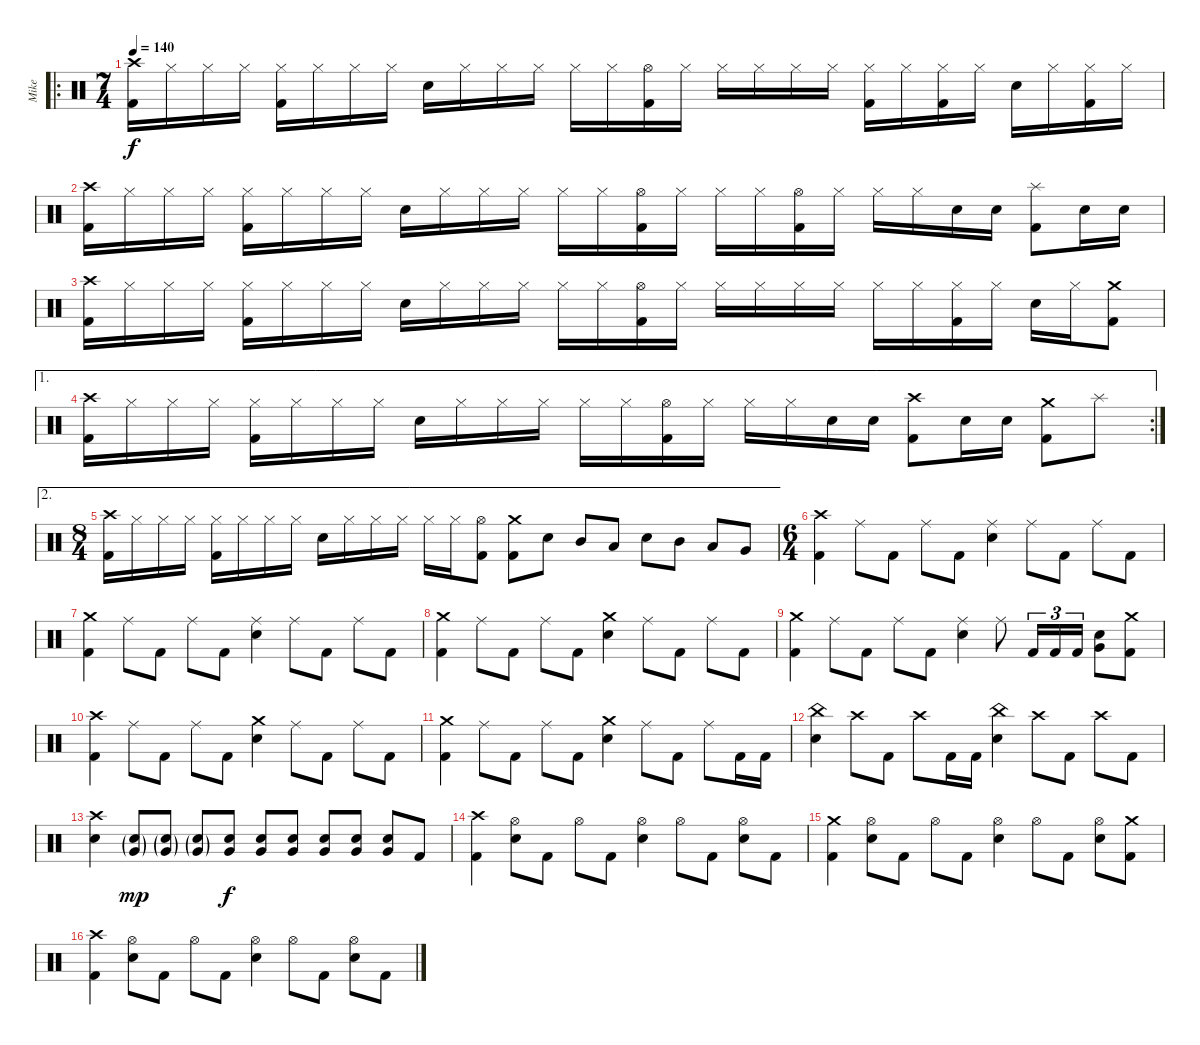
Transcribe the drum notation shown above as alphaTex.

\track ("Mike" "Mike") {instrument percussion}
\staff {score}
\articulation defaults
\ro
\ts (7 4)
\tempo 140
\clef neutral
\ks c
("Kick (hit) 2" "Crash high (hit)").16{dy f} "Hi-Hat (closed)".16 "Hi-Hat (closed)".16 "Hi-Hat (closed)".16 ("Kick (hit) 2" "Hi-Hat (closed)").16 "Hi-Hat (closed)".16 "Hi-Hat (closed)".16 "Hi-Hat (closed)".16 "Electric Snare (hit)".16 "Hi-Hat (closed)".16 "Hi-Hat (closed)".16 "Hi-Hat (closed)".16 "Hi-Hat (closed)".16 "Hi-Hat (closed)".16 ("Kick (hit) 2" "Hi-Hat (open)").16 "Hi-Hat (closed)".16 "Hi-Hat (closed)".16 "Hi-Hat (closed)".16 "Hi-Hat (closed)".16 "Hi-Hat (closed)".16 ("Kick (hit) 2" "Hi-Hat (closed)").16 "Hi-Hat (closed)".16 ("Kick (hit) 2" "Hi-Hat (closed)").16 "Hi-Hat (closed)".16 "Electric Snare (hit)".16 "Hi-Hat (closed)".16 ("Kick (hit) 2" "Hi-Hat (closed)").16 "Hi-Hat (closed)".16 |
("Kick (hit) 2" "Crash high (hit)").16 "Hi-Hat (closed)".16 "Hi-Hat (closed)".16 "Hi-Hat (closed)".16 ("Kick (hit) 2" "Hi-Hat (closed)").16 "Hi-Hat (closed)".16 "Hi-Hat (closed)".16 "Hi-Hat (closed)".16 "Electric Snare (hit)".16 "Hi-Hat (closed)".16 "Hi-Hat (closed)".16 "Hi-Hat (closed)".16 "Hi-Hat (closed)".16 "Hi-Hat (closed)".16 ("Kick (hit) 2" "Hi-Hat (open)").16 "Hi-Hat (closed)".16 "Hi-Hat (closed)".16 "Hi-Hat (closed)".16 ("Kick (hit) 2" "Hi-Hat (open)").16 "Hi-Hat (closed)".16 "Hi-Hat (closed)".16 "Hi-Hat (closed)".16 "Electric Snare (hit)".16 "Electric Snare (hit)".16 ("Kick (hit) 2" "Splash (hit)").8 "Electric Snare (hit)".16 "Electric Snare (hit)".16 |
("Kick (hit) 2" "Crash high (hit)").16 "Hi-Hat (closed)".16 "Hi-Hat (closed)".16 "Hi-Hat (closed)".16 ("Kick (hit) 2" "Hi-Hat (closed)").16 "Hi-Hat (closed)".16 "Hi-Hat (closed)".16 "Hi-Hat (closed)".16 "Electric Snare (hit)".16 "Hi-Hat (closed)".16 "Hi-Hat (closed)".16 "Hi-Hat (closed)".16 "Hi-Hat (closed)".16 "Hi-Hat (closed)".16 ("Kick (hit) 2" "Hi-Hat (open)").16 "Hi-Hat (closed)".16 "Hi-Hat (closed)".16 "Hi-Hat (closed)".16 "Hi-Hat (closed)".16 "Hi-Hat (closed)".16 "Hi-Hat (closed)".16 "Hi-Hat (closed)".16 ("Kick (hit) 2" "Hi-Hat (closed)").16 "Hi-Hat (closed)".16 "Electric Snare (hit)".16 "Hi-Hat (closed)".16 ("Kick (hit) 2" "Crash medium (hit)").8 |
\ae 1
\rc 2
("Kick (hit) 2" "Crash high (hit)").16 "Hi-Hat (closed)".16 "Hi-Hat (closed)".16 "Hi-Hat (closed)".16 ("Kick (hit) 2" "Hi-Hat (closed)").16 "Hi-Hat (closed)".16 "Hi-Hat (closed)".16 "Hi-Hat (closed)".16 "Electric Snare (hit)".16 "Hi-Hat (closed)".16 "Hi-Hat (closed)".16 "Hi-Hat (closed)".16 "Hi-Hat (closed)".16 "Hi-Hat (closed)".16 ("Kick (hit) 2" "Hi-Hat (open)").16 "Hi-Hat (closed)".16 "Hi-Hat (closed)".16 "Hi-Hat (closed)".16 "Electric Snare (hit)".16 "Electric Snare (hit)".16 ("Kick (hit) 2" "Crash high (hit)").8 "Electric Snare (hit)".16 "Electric Snare (hit)".16 ("Kick (hit) 2" "Crash medium (hit)").8 "Splash (hit)".8 |
\ae 2
\ts (8 4)
("Kick (hit) 2" "Crash high (hit)").16 "Hi-Hat (closed)".16 "Hi-Hat (closed)".16 "Hi-Hat (closed)".16 ("Kick (hit) 2" "Hi-Hat (closed)").16 "Hi-Hat (closed)".16 "Hi-Hat (closed)".16 "Hi-Hat (closed)".16 "Electric Snare (hit)".16 "Hi-Hat (closed)".16 "Hi-Hat (closed)".16 "Hi-Hat (closed)".16 "Hi-Hat (closed)".16 "Hi-Hat (closed)".16 ("Kick (hit) 2" "Hi-Hat (open)").8 ("Kick (hit) 2" "Crash medium (hit)").8 "Electric Snare (hit)".8 "Mid Tom (hit)".8 "Low Tom (hit)".8 "Electric Snare (hit)".8 "Mid Tom (hit)".8 "Low Tom (hit)".8 "Very Low Tom (hit)".8 |
\ts (6 4)
("Kick (hit) 2" "Crash high (hit)").4 "Ride (middle)".8 "Kick (hit) 2".8 "Ride (middle)".8 "Kick (hit) 2".8 ("Electric Snare (hit)" "Ride (middle)").4 "Ride (middle)".8 "Kick (hit) 2".8 "Ride (middle)".8 "Kick (hit) 2".8 |
("Kick (hit) 2" "Crash medium (hit)").4 "Ride (middle)".8 "Kick (hit) 2".8 "Ride (middle)".8 "Kick (hit) 2".8 ("Electric Snare (hit)" "Ride (middle)").4 "Ride (middle)".8 "Kick (hit) 2".8 "Ride (middle)".8 "Kick (hit) 2".8 |
("Kick (hit) 2" "Crash medium (hit)").4 "Ride (middle)".8 "Kick (hit) 2".8 "Ride (middle)".8 "Kick (hit) 2".8 ("Electric Snare (hit)" "Crash medium (hit)").4 "Ride (middle)".8 "Kick (hit) 2".8 "Ride (middle)".8 "Kick (hit) 2".8 |
("Kick (hit) 2" "Crash medium (hit)").4 "Ride (middle)".8 "Kick (hit) 2".8 "Ride (middle)".8 "Kick (hit) 2".8 ("Electric Snare (hit)" "Ride (middle)").4 "Ride (middle)".8 "Kick (hit) 2".16{tu (3 2)} "Kick (hit) 2".16{tu (3 2)} "Kick (hit) 2".16{tu (3 2)} ("Electric Snare (hit)" "Very Low Tom (hit)").8 ("Kick (hit) 2" "Crash medium (hit)").8 |
("Kick (hit) 2" "Crash high (hit)").4 "Ride (middle)".8 "Kick (hit) 2".8 "Ride (middle)".8 "Kick (hit) 2".8 ("Electric Snare (hit)" "Crash medium (hit)").4 "Ride (middle)".8 "Kick (hit) 2".8 "Ride (middle)".8 "Kick (hit) 2".8 |
("Kick (hit) 2" "Crash medium (hit)").4 "Ride (middle)".8 "Kick (hit) 2".8 "Ride (middle)".8 "Kick (hit) 2".8 ("Electric Snare (hit)" "Crash medium (hit)").4 "Ride (middle)".8 "Kick (hit) 2".8 "Ride (middle)".8 "Kick (hit) 2".16 "Kick (hit) 2".16 |
("Electric Snare (hit)" "China (hit)").4 "Crash high (hit)".8 "Kick (hit) 2".8 "Crash high (hit)".8 "Kick (hit) 2".16 "Kick (hit) 2".16 ("Electric Snare (hit)" "China (hit)").4 "Crash high (hit)".8 "Kick (hit) 2".8 "Crash high (hit)".8 "Kick (hit) 2".8 |
("Electric Snare (hit)" "Crash high (hit)").4 ("Electric Snare (hit)"{g} "Very Low Tom (hit)"{g}).8{dy mp} ("Electric Snare (hit)"{g} "Very Low Tom (hit)"{g}).8 ("Electric Snare (hit)"{g} "Very Low Tom (hit)"{g}).8 ("Electric Snare (hit)" "Very Low Tom (hit)").8{dy f} ("Electric Snare (hit)" "Very Low Tom (hit)").8 ("Electric Snare (hit)" "Very Low Tom (hit)").8 ("Electric Snare (hit)" "Very Low Tom (hit)").8 ("Electric Snare (hit)" "Very Low Tom (hit)").8 ("Electric Snare (hit)" "Very Low Tom (hit)").8 "Kick (hit) 2".8 |
("Kick (hit) 2" "Crash high (hit)").4 ("Electric Snare (hit)" "Hi-Hat (open)").8 "Kick (hit) 2".8 "Hi-Hat (open)".8 "Kick (hit) 2".8 ("Electric Snare (hit)" "Hi-Hat (open)").4 "Hi-Hat (open)".8 "Kick (hit) 2".8 ("Electric Snare (hit)" "Hi-Hat (open)").8 "Kick (hit) 2".8 |
("Kick (hit) 2" "Crash medium (hit)").4 ("Electric Snare (hit)" "Hi-Hat (open)").8 "Kick (hit) 2".8 "Hi-Hat (open)".8 "Kick (hit) 2".8 ("Electric Snare (hit)" "Hi-Hat (open)").4 "Hi-Hat (open)".8 "Kick (hit) 2".8 ("Electric Snare (hit)" "Hi-Hat (open)").8 ("Kick (hit) 2" "Crash medium (hit)").8 |
("Kick (hit) 2" "Crash high (hit)").4 ("Electric Snare (hit)" "Hi-Hat (open)").8 "Kick (hit) 2".8 "Hi-Hat (open)".8 "Kick (hit) 2".8 ("Electric Snare (hit)" "Hi-Hat (open)").4 "Hi-Hat (open)".8 "Kick (hit) 2".8 ("Electric Snare (hit)" "Hi-Hat (open)").8 "Kick (hit) 2".8
